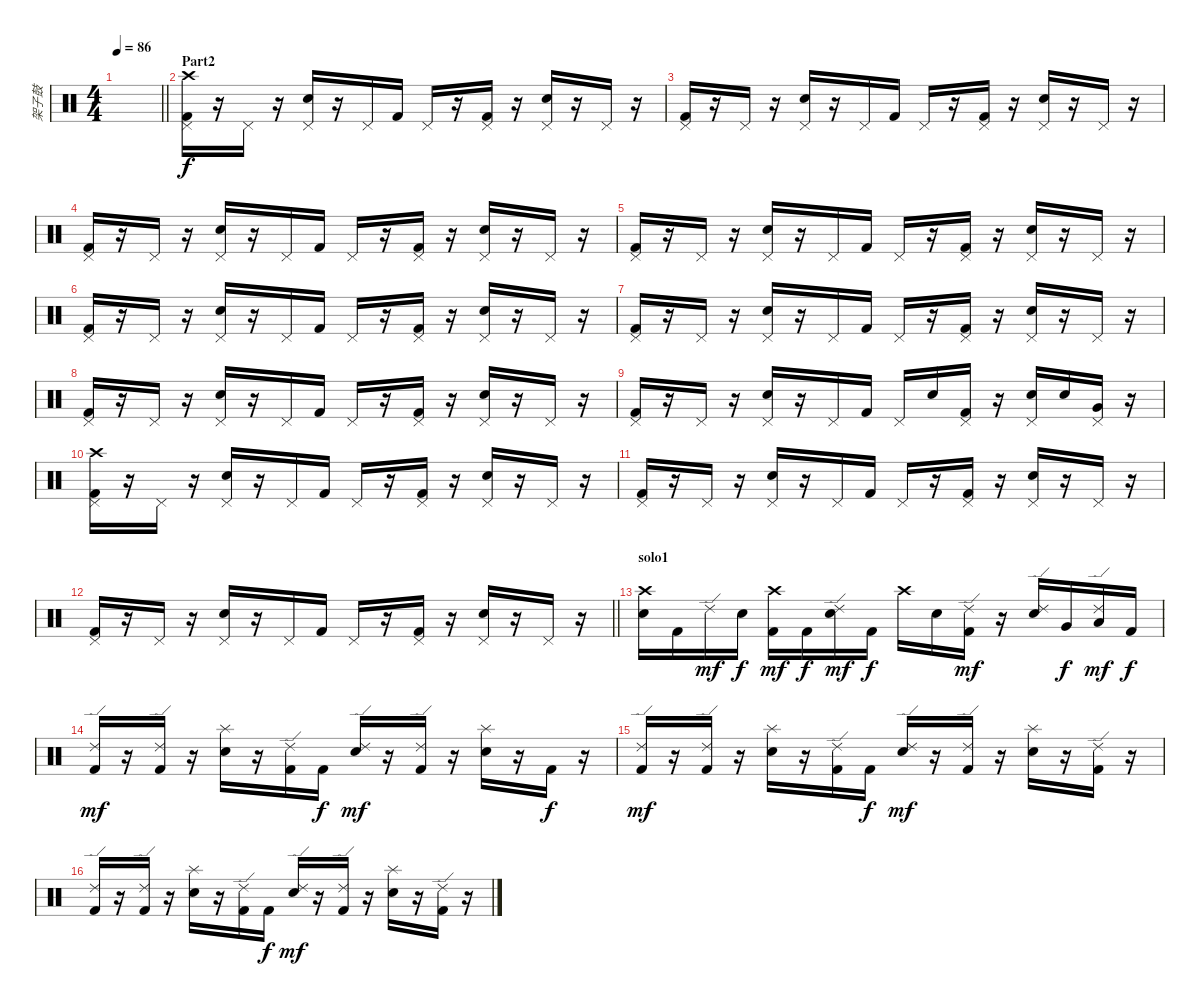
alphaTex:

\track ("架子鼓" "架子鼓") {instrument percussion}
\staff {score}
\articulation defaults
\ts (4 4)
\tempo 86
\clef neutral
\barLineRight lightlight
\ks c
|
\section ("" "Part2")
("Crash high (hit)" "Pedal Hi-Hat (hit)" "Kick (hit) 2").16 r.16 "Pedal Hi-Hat (hit)".16 r.16 ("Pedal Hi-Hat (hit)" "Snare (hit) 2").16 r.16 "Pedal Hi-Hat (hit)".16 "Kick (hit) 2".16 "Pedal Hi-Hat (hit)".16 r.16 ("Pedal Hi-Hat (hit)" "Kick (hit) 2").16 r.16 ("Pedal Hi-Hat (hit)" "Snare (hit) 2").16 r.16 "Pedal Hi-Hat (hit)".16 r.16 |
("Pedal Hi-Hat (hit)" "Kick (hit) 2").16 r.16 "Pedal Hi-Hat (hit)".16 r.16 ("Pedal Hi-Hat (hit)" "Snare (hit) 2").16 r.16 "Pedal Hi-Hat (hit)".16 "Kick (hit) 2".16 "Pedal Hi-Hat (hit)".16 r.16 ("Pedal Hi-Hat (hit)" "Kick (hit) 2").16 r.16 ("Pedal Hi-Hat (hit)" "Snare (hit) 2").16 r.16 "Pedal Hi-Hat (hit)".16 r.16 |
("Pedal Hi-Hat (hit)" "Kick (hit) 2").16 r.16 "Pedal Hi-Hat (hit)".16 r.16 ("Pedal Hi-Hat (hit)" "Snare (hit) 2").16 r.16 "Pedal Hi-Hat (hit)".16 "Kick (hit) 2".16 "Pedal Hi-Hat (hit)".16 r.16 ("Pedal Hi-Hat (hit)" "Kick (hit) 2").16 r.16 ("Pedal Hi-Hat (hit)" "Snare (hit) 2").16 r.16 "Pedal Hi-Hat (hit)".16 r.16 |
("Pedal Hi-Hat (hit)" "Kick (hit) 2").16 r.16 "Pedal Hi-Hat (hit)".16 r.16 ("Pedal Hi-Hat (hit)" "Snare (hit) 2").16 r.16 "Pedal Hi-Hat (hit)".16 "Kick (hit) 2".16 "Pedal Hi-Hat (hit)".16 r.16 ("Pedal Hi-Hat (hit)" "Kick (hit) 2").16 r.16 ("Pedal Hi-Hat (hit)" "Snare (hit) 2").16 r.16 "Pedal Hi-Hat (hit)".16 r.16 |
("Pedal Hi-Hat (hit)" "Kick (hit) 2").16 r.16 "Pedal Hi-Hat (hit)".16 r.16 ("Pedal Hi-Hat (hit)" "Snare (hit) 2").16 r.16 "Pedal Hi-Hat (hit)".16 "Kick (hit) 2".16 "Pedal Hi-Hat (hit)".16 r.16 ("Pedal Hi-Hat (hit)" "Kick (hit) 2").16 r.16 ("Pedal Hi-Hat (hit)" "Snare (hit) 2").16 r.16 "Pedal Hi-Hat (hit)".16 r.16 |
("Pedal Hi-Hat (hit)" "Kick (hit) 2").16 r.16 "Pedal Hi-Hat (hit)".16 r.16 ("Pedal Hi-Hat (hit)" "Snare (hit) 2").16 r.16 "Pedal Hi-Hat (hit)".16 "Kick (hit) 2".16 "Pedal Hi-Hat (hit)".16 r.16 ("Pedal Hi-Hat (hit)" "Kick (hit) 2").16 r.16 ("Pedal Hi-Hat (hit)" "Snare (hit) 2").16 r.16 "Pedal Hi-Hat (hit)".16 r.16 |
("Pedal Hi-Hat (hit)" "Kick (hit) 2").16 r.16 "Pedal Hi-Hat (hit)".16 r.16 ("Pedal Hi-Hat (hit)" "Snare (hit) 2").16 r.16 "Pedal Hi-Hat (hit)".16 "Kick (hit) 2".16 "Pedal Hi-Hat (hit)".16 r.16 ("Pedal Hi-Hat (hit)" "Kick (hit) 2").16 r.16 ("Pedal Hi-Hat (hit)" "Snare (hit) 2").16 r.16 "Pedal Hi-Hat (hit)".16 r.16 |
("Pedal Hi-Hat (hit)" "Kick (hit) 2").16 r.16 "Pedal Hi-Hat (hit)".16 r.16 ("Pedal Hi-Hat (hit)" "Snare (hit) 2").16 r.16 "Pedal Hi-Hat (hit)".16 "Kick (hit) 2".16 "Pedal Hi-Hat (hit)".16 "Snare (hit) 2".16 ("Pedal Hi-Hat (hit)" "Kick (hit) 2").16 r.16 ("Pedal Hi-Hat (hit)" "Snare (hit) 2").16 "Snare (hit) 2".16 ("Pedal Hi-Hat (hit)" "Very Low Tom (hit)").16 r.16 |
("Crash high (hit)" "Pedal Hi-Hat (hit)" "Kick (hit) 2").16 r.16 "Pedal Hi-Hat (hit)".16 r.16 ("Pedal Hi-Hat (hit)" "Snare (hit) 2").16 r.16 "Pedal Hi-Hat (hit)".16 "Kick (hit) 2".16 "Pedal Hi-Hat (hit)".16 r.16 ("Pedal Hi-Hat (hit)" "Kick (hit) 2").16 r.16 ("Pedal Hi-Hat (hit)" "Snare (hit) 2").16 r.16 "Pedal Hi-Hat (hit)".16 r.16 |
("Pedal Hi-Hat (hit)" "Kick (hit) 2").16 r.16 "Pedal Hi-Hat (hit)".16 r.16 ("Pedal Hi-Hat (hit)" "Snare (hit) 2").16 r.16 "Pedal Hi-Hat (hit)".16 "Kick (hit) 2".16 "Pedal Hi-Hat (hit)".16 r.16 ("Pedal Hi-Hat (hit)" "Kick (hit) 2").16 r.16 ("Pedal Hi-Hat (hit)" "Snare (hit) 2").16 r.16 "Pedal Hi-Hat (hit)".16 r.16 |
\barLineRight lightlight
("Pedal Hi-Hat (hit)" "Kick (hit) 2").16 r.16 "Pedal Hi-Hat (hit)".16 r.16 ("Pedal Hi-Hat (hit)" "Snare (hit) 2").16 r.16 "Pedal Hi-Hat (hit)".16 "Kick (hit) 2".16 "Pedal Hi-Hat (hit)".16 r.16 ("Pedal Hi-Hat (hit)" "Kick (hit) 2").16 r.16 ("Pedal Hi-Hat (hit)" "Snare (hit) 2").16 r.16 "Pedal Hi-Hat (hit)".16 r.16 |
\section ("" "solo1")
("Crash high (hit)" "Snare (hit) 2").16 "Kick (hit) 2".16 "Ride (edge) 2".16{dy mf} "Snare (hit) 2".16{dy f} ("Crash high (hit)" "Kick (hit) 2").16{dy mf} "Kick (hit) 2".16{dy f} ("Ride (edge) 2" "Snare (hit) 2").16{dy mf} "Kick (hit) 2".16{dy f} "Crash high (hit)".16 "Snare (hit) 2".16 ("Ride (edge) 2" "Kick (hit) 2").16{dy mf} r.16 ("Ride (edge) 2" "Snare (hit) 2").16 "Very Low Tom (hit)".16{dy f} ("Ride (edge) 2" "Low Floor Tom (hit)").16{dy mf} "Kick (hit) 2".16{dy f} |
("Ride (edge) 2" "Kick (hit) 2").16{dy mf} r.16 ("Ride (edge) 2" "Kick (hit) 2").16 r.16 ("Splash (hit)" "Snare (hit) 2").16 r.16 ("Ride (edge) 2" "Kick (hit) 2").16 "Kick (hit) 2".16{dy f} ("Ride (edge) 2" "Snare (hit) 2").16{dy mf} r.16 ("Ride (edge) 2" "Kick (hit) 2").16 r.16 ("Splash (hit)" "Snare (hit) 2").16 r.16 "Kick (hit) 2".16{dy f} r.16 |
("Ride (edge) 2" "Kick (hit) 2").16{dy mf} r.16 ("Ride (edge) 2" "Kick (hit) 2").16 r.16 ("Splash (hit)" "Snare (hit) 2").16 r.16 ("Ride (edge) 2" "Kick (hit) 2").16 "Kick (hit) 2".16{dy f} ("Ride (edge) 2" "Snare (hit) 2").16{dy mf} r.16 ("Ride (edge) 2" "Kick (hit) 2").16 r.16 ("Splash (hit)" "Snare (hit) 2").16 r.16 ("Ride (edge) 2" "Kick (hit) 2").16 r.16 |
("Ride (edge) 2" "Kick (hit) 2").16 r.16 ("Ride (edge) 2" "Kick (hit) 2").16 r.16 ("Splash (hit)" "Snare (hit) 2").16 r.16 ("Ride (edge) 2" "Kick (hit) 2").16 "Kick (hit) 2".16{dy f} ("Ride (edge) 2" "Snare (hit) 2").16{dy mf} r.16 ("Ride (edge) 2" "Kick (hit) 2").16 r.16 ("Splash (hit)" "Snare (hit) 2").16 r.16 ("Ride (edge) 2" "Kick (hit) 2").16 r.16
